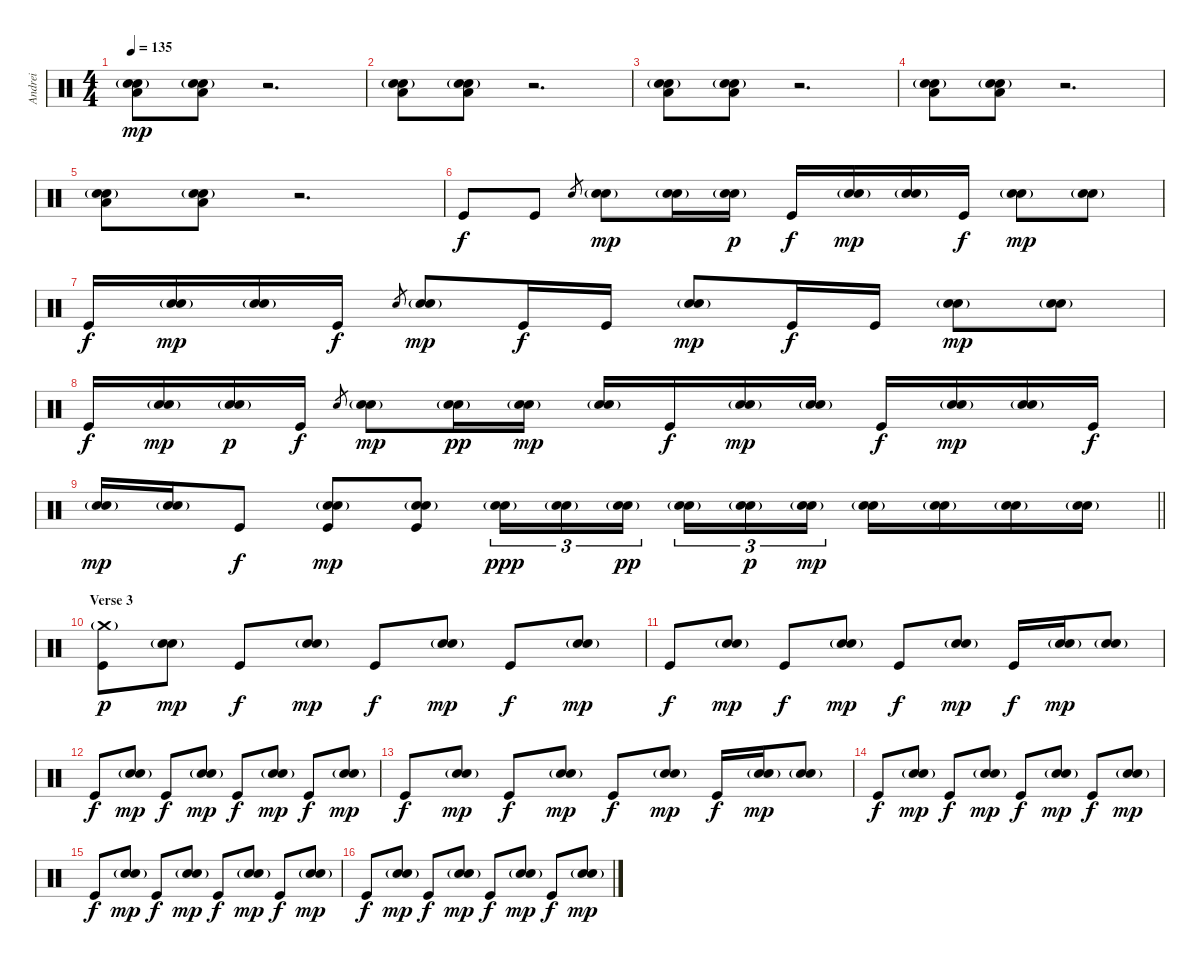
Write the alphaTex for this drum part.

\track ("Andrei" "Andrei") {instrument percussion}
\staff {score}
\articulation defaults
\ts (4 4)
\tempo 135
\clef neutral
\ks c
("Hand Clap (hit)"{g} "Snare (hit) 2" "Low Floor Tom (hit)").8{dy mp} ("Hand Clap (hit)"{g} "Snare (hit) 2" "Low Floor Tom (hit)").8 r.2{d} |
("Hand Clap (hit)"{g} "Snare (hit) 2" "Low Floor Tom (hit)").8 ("Hand Clap (hit)"{g} "Snare (hit) 2" "Low Floor Tom (hit)").8 r.2{d} |
("Hand Clap (hit)"{g} "Snare (hit) 2" "Low Floor Tom (hit)").8 ("Hand Clap (hit)"{g} "Snare (hit) 2" "Low Floor Tom (hit)").8 r.2{d} |
("Hand Clap (hit)"{g} "Snare (hit) 2" "Low Floor Tom (hit)").8 ("Hand Clap (hit)"{g} "Snare (hit) 2" "Low Floor Tom (hit)").8 r.2{d} |
("Hand Clap (hit)"{g} "Snare (hit) 2" "Low Floor Tom (hit)").8 ("Hand Clap (hit)"{g} "Snare (hit) 2" "Low Floor Tom (hit)").8 r.2{d} |
"Kick (hit)".8{dy f} "Kick (hit)".8 "Snare (hit) 2".8{gr} ("Hand Clap (hit)"{g} "Snare (hit) 2").8{dy mp} ("Hand Clap (hit)"{g} "Snare (hit) 2").16 ("Hand Clap (hit)"{g} "Snare (hit) 2").16{dy p} "Kick (hit)".16{dy f} ("Hand Clap (hit)"{g} "Snare (hit) 2").16{dy mp} ("Hand Clap (hit)"{g} "Snare (hit) 2").16 "Kick (hit)".16{dy f} ("Hand Clap (hit)"{g} "Snare (hit) 2").8{dy mp} ("Hand Clap (hit)"{g} "Snare (hit) 2").8 |
"Kick (hit)".16{dy f} ("Hand Clap (hit)"{g} "Snare (hit) 2").16{dy mp} ("Hand Clap (hit)"{g} "Snare (hit) 2").16 "Kick (hit)".16{dy f} "Snare (hit) 2".8{gr} ("Hand Clap (hit)"{g} "Snare (hit) 2").8{dy mp} "Kick (hit)".16{dy f} "Kick (hit)".16 ("Hand Clap (hit)"{g} "Snare (hit) 2").8{dy mp} "Kick (hit)".16{dy f} "Kick (hit)".16 ("Hand Clap (hit)"{g} "Snare (hit) 2").8{dy mp} ("Hand Clap (hit)"{g} "Snare (hit) 2").8 |
"Kick (hit)".16{dy f} ("Hand Clap (hit)"{g} "Snare (hit) 2").16{dy mp} ("Hand Clap (hit)"{g} "Snare (hit) 2").16{dy p} "Kick (hit)".16{dy f} "Snare (hit) 2".8{gr} ("Hand Clap (hit)"{g} "Snare (hit) 2").8{dy mp} ("Hand Clap (hit)"{g} "Snare (hit) 2").16{dy pp} ("Hand Clap (hit)"{g} "Snare (hit) 2").16{dy mp} ("Hand Clap (hit)"{g} "Snare (hit) 2").16 "Kick (hit)".16{dy f} ("Hand Clap (hit)"{g} "Snare (hit) 2").16{dy mp} ("Hand Clap (hit)"{g} "Snare (hit) 2").16 "Kick (hit)".16{dy f} ("Hand Clap (hit)"{g} "Snare (hit) 2").16{dy mp} ("Hand Clap (hit)"{g} "Snare (hit) 2").16 "Kick (hit)".16{dy f} |
\barLineRight lightlight
("Hand Clap (hit)"{g} "Snare (hit) 2").16{dy mp} ("Hand Clap (hit)"{g} "Snare (hit) 2").16 "Kick (hit)".8{dy f} ("Hand Clap (hit)"{g} "Snare (hit) 2" "Kick (hit)").8{dy mp} ("Hand Clap (hit)"{g} "Snare (hit) 2" "Kick (hit)").8 ("Hand Clap (hit)"{g} "Snare (hit) 2").16{tu (3 2) dy ppp} ("Hand Clap (hit)"{g} "Snare (hit) 2").16{tu (3 2)} ("Hand Clap (hit)"{g} "Snare (hit) 2").16{tu (3 2) dy pp beam splitsecondary} ("Hand Clap (hit)"{g} "Snare (hit) 2").16{tu (3 2)} ("Hand Clap (hit)"{g} "Snare (hit) 2").16{tu (3 2) dy p} ("Hand Clap (hit)"{g} "Snare (hit) 2").16{tu (3 2) dy mp} ("Hand Clap (hit)"{g} "Snare (hit) 2").16 ("Hand Clap (hit)"{g} "Snare (hit) 2").16 ("Hand Clap (hit)"{g} "Snare (hit) 2").16 ("Hand Clap (hit)"{g} "Snare (hit) 2").16 |
\section ("" "Verse 3")
("Crash medium (hit)"{g} "Kick (hit)").8{dy p} ("Hand Clap (hit)"{g} "Snare (hit) 2").8{dy mp} "Kick (hit)".8{dy f} ("Hand Clap (hit)"{g} "Snare (hit) 2").8{dy mp} "Kick (hit)".8{dy f} ("Hand Clap (hit)"{g} "Snare (hit) 2").8{dy mp} "Kick (hit)".8{dy f} ("Hand Clap (hit)"{g} "Snare (hit) 2").8{dy mp} |
"Kick (hit)".8{dy f} ("Hand Clap (hit)"{g} "Snare (hit) 2").8{dy mp} "Kick (hit)".8{dy f} ("Hand Clap (hit)"{g} "Snare (hit) 2").8{dy mp} "Kick (hit)".8{dy f} ("Hand Clap (hit)"{g} "Snare (hit) 2").8{dy mp} "Kick (hit)".16{dy f} ("Hand Clap (hit)"{g} "Snare (hit) 2"{g}).16{dy mp} ("Hand Clap (hit)"{g} "Snare (hit) 2").8 |
"Kick (hit)".8{dy f} ("Hand Clap (hit)"{g} "Snare (hit) 2").8{dy mp} "Kick (hit)".8{dy f} ("Hand Clap (hit)"{g} "Snare (hit) 2").8{dy mp} "Kick (hit)".8{dy f} ("Hand Clap (hit)"{g} "Snare (hit) 2").8{dy mp} "Kick (hit)".8{dy f} ("Hand Clap (hit)"{g} "Snare (hit) 2").8{dy mp} |
"Kick (hit)".8{dy f} ("Hand Clap (hit)"{g} "Snare (hit) 2").8{dy mp} "Kick (hit)".8{dy f} ("Hand Clap (hit)"{g} "Snare (hit) 2").8{dy mp} "Kick (hit)".8{dy f} ("Hand Clap (hit)"{g} "Snare (hit) 2").8{dy mp} "Kick (hit)".16{dy f} ("Hand Clap (hit)"{g} "Snare (hit) 2"{g}).16{dy mp} ("Hand Clap (hit)"{g} "Snare (hit) 2").8 |
"Kick (hit)".8{dy f} ("Hand Clap (hit)"{g} "Snare (hit) 2").8{dy mp} "Kick (hit)".8{dy f} ("Hand Clap (hit)"{g} "Snare (hit) 2").8{dy mp} "Kick (hit)".8{dy f} ("Hand Clap (hit)"{g} "Snare (hit) 2").8{dy mp} "Kick (hit)".8{dy f} ("Hand Clap (hit)"{g} "Snare (hit) 2").8{dy mp} |
"Kick (hit)".8{dy f} ("Hand Clap (hit)"{g} "Snare (hit) 2").8{dy mp} "Kick (hit)".8{dy f} ("Hand Clap (hit)"{g} "Snare (hit) 2").8{dy mp} "Kick (hit)".8{dy f} ("Hand Clap (hit)"{g} "Snare (hit) 2").8{dy mp} "Kick (hit)".8{dy f} ("Hand Clap (hit)"{g} "Snare (hit) 2").8{dy mp} |
"Kick (hit)".8{dy f} ("Hand Clap (hit)"{g} "Snare (hit) 2").8{dy mp} "Kick (hit)".8{dy f} ("Hand Clap (hit)"{g} "Snare (hit) 2").8{dy mp} "Kick (hit)".8{dy f} ("Hand Clap (hit)"{g} "Snare (hit) 2").8{dy mp} "Kick (hit)".8{dy f} ("Hand Clap (hit)"{g} "Snare (hit) 2").8{dy mp}
